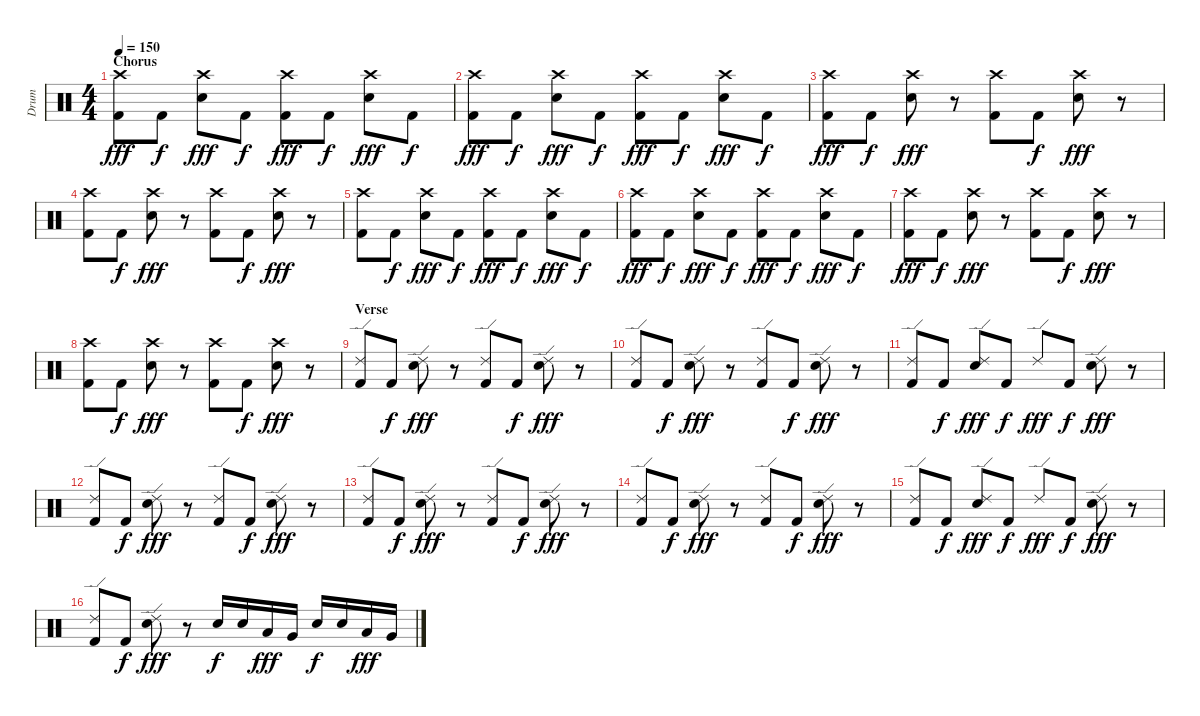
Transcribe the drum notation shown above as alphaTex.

\track ("Drum" "Drum") {instrument percussion}
\staff {score}
\articulation defaults
\ts (4 4)
\section ("" "Chorus")
\tempo 150
\clef neutral
\ks c
("Crash high (hit)" "Kick (hit) 2").8{dy fff} "Kick (hit) 2".8{dy f} ("Crash high (hit)" "Electric Snare (hit)").8{dy fff} "Kick (hit) 2".8{dy f} ("Crash high (hit)" "Kick (hit) 2").8{dy fff} "Kick (hit) 2".8{dy f} ("Crash high (hit)" "Electric Snare (hit)").8{dy fff} "Kick (hit) 2".8{dy f} |
("Crash high (hit)" "Kick (hit) 2").8{dy fff} "Kick (hit) 2".8{dy f} ("Crash high (hit)" "Electric Snare (hit)").8{dy fff} "Kick (hit) 2".8{dy f} ("Crash high (hit)" "Kick (hit) 2").8{dy fff} "Kick (hit) 2".8{dy f} ("Crash high (hit)" "Electric Snare (hit)").8{dy fff} "Kick (hit) 2".8{dy f} |
("Crash high (hit)" "Kick (hit) 2").8{dy fff} "Kick (hit) 2".8{dy f} ("Crash high (hit)" "Electric Snare (hit)").8{dy fff} r.8 ("Crash high (hit)" "Kick (hit) 2").8 "Kick (hit) 2".8{dy f} ("Crash high (hit)" "Electric Snare (hit)").8{dy fff} r.8 |
("Crash high (hit)" "Kick (hit) 2").8 "Kick (hit) 2".8{dy f} ("Crash high (hit)" "Electric Snare (hit)").8{dy fff} r.8 ("Crash high (hit)" "Kick (hit) 2").8 "Kick (hit) 2".8{dy f} ("Crash high (hit)" "Electric Snare (hit)").8{dy fff} r.8 |
("Crash high (hit)" "Kick (hit) 2").8 "Kick (hit) 2".8{dy f} ("Crash high (hit)" "Electric Snare (hit)").8{dy fff} "Kick (hit) 2".8{dy f} ("Crash high (hit)" "Kick (hit) 2").8{dy fff} "Kick (hit) 2".8{dy f} ("Crash high (hit)" "Electric Snare (hit)").8{dy fff} "Kick (hit) 2".8{dy f} |
("Crash high (hit)" "Kick (hit) 2").8{dy fff} "Kick (hit) 2".8{dy f} ("Crash high (hit)" "Electric Snare (hit)").8{dy fff} "Kick (hit) 2".8{dy f} ("Crash high (hit)" "Kick (hit) 2").8{dy fff} "Kick (hit) 2".8{dy f} ("Crash high (hit)" "Electric Snare (hit)").8{dy fff} "Kick (hit) 2".8{dy f} |
("Crash high (hit)" "Kick (hit) 2").8{dy fff} "Kick (hit) 2".8{dy f} ("Crash high (hit)" "Electric Snare (hit)").8{dy fff} r.8 ("Crash high (hit)" "Kick (hit) 2").8 "Kick (hit) 2".8{dy f} ("Crash high (hit)" "Electric Snare (hit)").8{dy fff} r.8 |
("Crash high (hit)" "Kick (hit) 2").8 "Kick (hit) 2".8{dy f} ("Crash high (hit)" "Electric Snare (hit)").8{dy fff} r.8 ("Crash high (hit)" "Kick (hit) 2").8 "Kick (hit) 2".8{dy f} ("Crash high (hit)" "Electric Snare (hit)").8{dy fff} r.8 |
\section ("" "Verse")
("Ride (edge) 2" "Kick (hit) 2").8 "Kick (hit) 2".8{dy f} ("Ride (edge) 2" "Electric Snare (hit)").8{dy fff} r.8 ("Ride (edge) 2" "Kick (hit) 2").8 "Kick (hit) 2".8{dy f} ("Ride (edge) 2" "Electric Snare (hit)").8{dy fff} r.8 |
("Ride (edge) 2" "Kick (hit) 2").8 "Kick (hit) 2".8{dy f} ("Ride (edge) 2" "Electric Snare (hit)").8{dy fff} r.8 ("Ride (edge) 2" "Kick (hit) 2").8 "Kick (hit) 2".8{dy f} ("Ride (edge) 2" "Electric Snare (hit)").8{dy fff} r.8 |
("Ride (edge) 2" "Kick (hit) 2").8 "Kick (hit) 2".8{dy f} ("Ride (edge) 2" "Electric Snare (hit)").8{dy fff} "Kick (hit) 2".8{dy f} "Ride (edge) 2".8{dy fff} "Kick (hit) 2".8{dy f} ("Ride (edge) 2" "Electric Snare (hit)").8{dy fff} r.8 |
("Ride (edge) 2" "Kick (hit) 2").8 "Kick (hit) 2".8{dy f} ("Ride (edge) 2" "Electric Snare (hit)").8{dy fff} r.8 ("Ride (edge) 2" "Kick (hit) 2").8 "Kick (hit) 2".8{dy f} ("Ride (edge) 2" "Electric Snare (hit)").8{dy fff} r.8 |
("Ride (edge) 2" "Kick (hit) 2").8 "Kick (hit) 2".8{dy f} ("Ride (edge) 2" "Electric Snare (hit)").8{dy fff} r.8 ("Ride (edge) 2" "Kick (hit) 2").8 "Kick (hit) 2".8{dy f} ("Ride (edge) 2" "Electric Snare (hit)").8{dy fff} r.8 |
("Ride (edge) 2" "Kick (hit) 2").8 "Kick (hit) 2".8{dy f} ("Ride (edge) 2" "Electric Snare (hit)").8{dy fff} r.8 ("Ride (edge) 2" "Kick (hit) 2").8 "Kick (hit) 2".8{dy f} ("Ride (edge) 2" "Electric Snare (hit)").8{dy fff} r.8 |
("Ride (edge) 2" "Kick (hit) 2").8 "Kick (hit) 2".8{dy f} ("Ride (edge) 2" "Electric Snare (hit)").8{dy fff} "Kick (hit) 2".8{dy f} "Ride (edge) 2".8{dy fff} "Kick (hit) 2".8{dy f} ("Ride (edge) 2" "Electric Snare (hit)").8{dy fff} r.8 |
("Ride (edge) 2" "Kick (hit) 2").8 "Kick (hit) 2".8{dy f} ("Ride (edge) 2" "Electric Snare (hit)").8{dy fff} r.8 "Electric Snare (hit)".16{dy f} "Electric Snare (hit)".16 "Low Tom (hit)".16{dy fff} "Very Low Tom (hit)".16 "Electric Snare (hit)".16{dy f} "Electric Snare (hit)".16 "Low Tom (hit)".16{dy fff} "Very Low Tom (hit)".16
